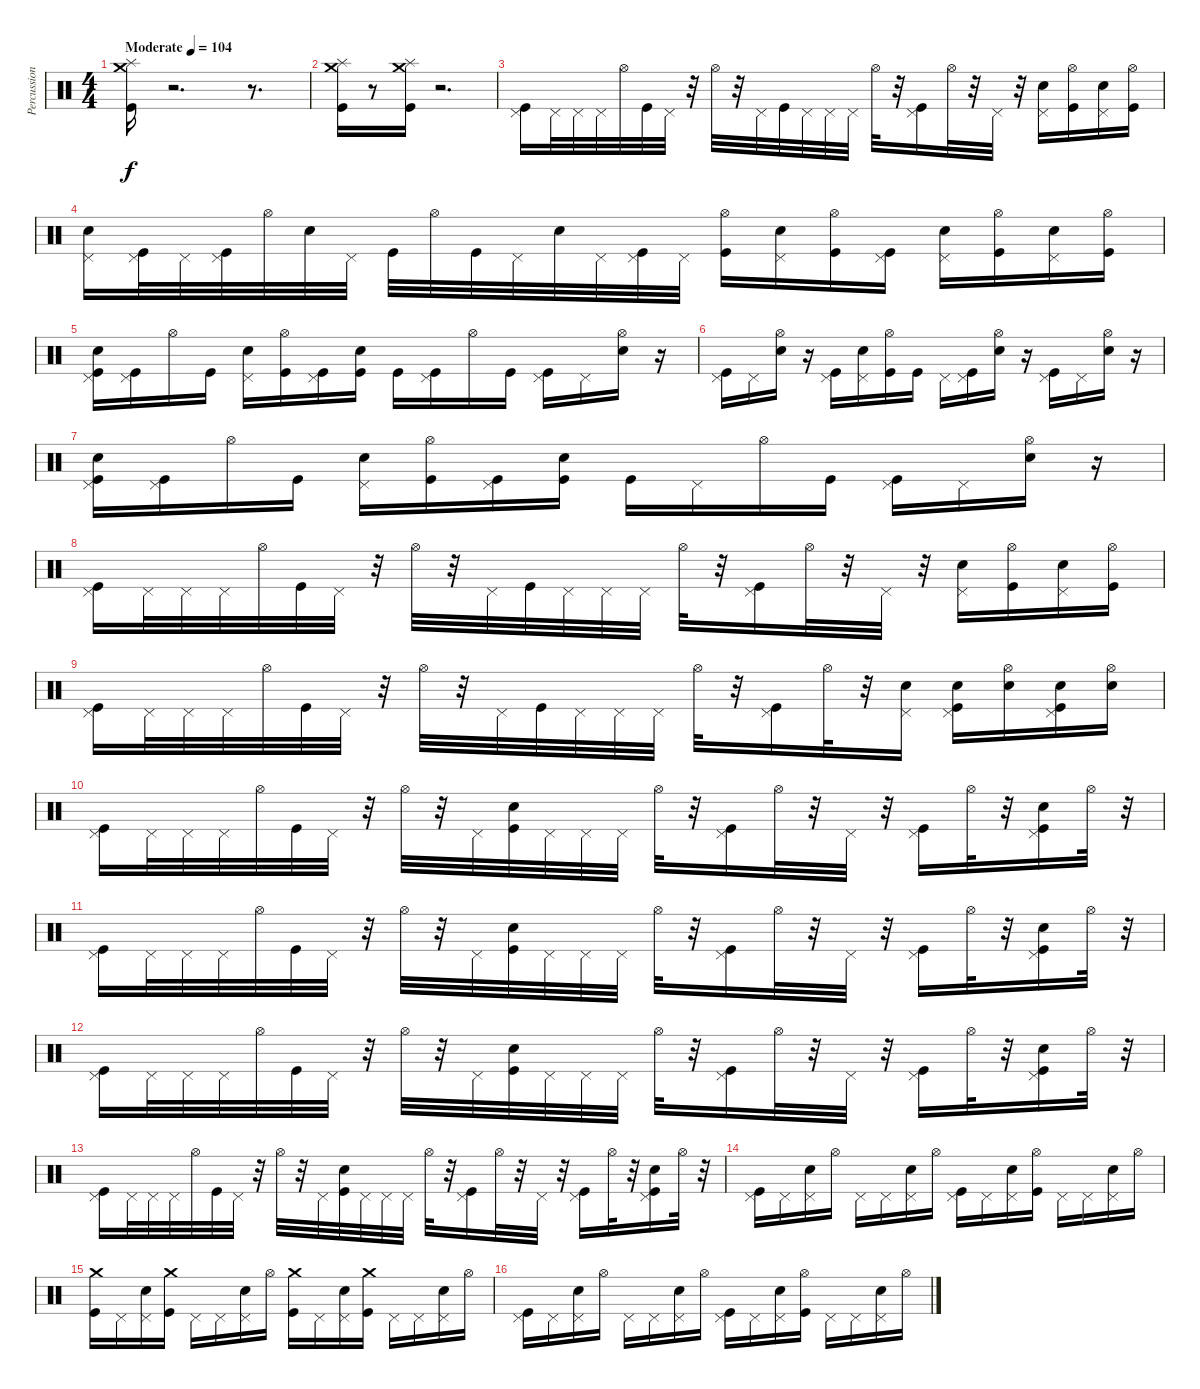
\track ("Percussion" "Percussion") {instrument percussion}
\staff {score}
\articulation defaults
\ts (4 4)
\tempo (104 "Moderate")
\clef neutral
\ks c
("Kick (hit)" "Splash (hit)" "Crash medium (hit)").16{dy f} r.2{d} r.8{d} |
("Crash medium (hit)" "Kick (hit)" "Splash (hit)").16 r.8 ("Kick (hit)" "Splash (hit)" "Crash medium (hit)").16 r.2{d} |
("Kick (hit)" "Pedal Hi-Hat (hit)").16 "Pedal Hi-Hat (hit)".32 "Pedal Hi-Hat (hit)".32 "Pedal Hi-Hat (hit)".32 "Hi-Hat (open)".32 "Kick (hit)".32 "Pedal Hi-Hat (hit)".32 r.32 "Hi-Hat (open)".32 r.32 "Pedal Hi-Hat (hit)".32 "Kick (hit)".32 "Pedal Hi-Hat (hit)".32 "Pedal Hi-Hat (hit)".32 "Pedal Hi-Hat (hit)".32 "Hi-Hat (open)".32 r.32 ("Pedal Hi-Hat (hit)" "Kick (hit)").16 "Hi-Hat (open)".32 r.32 "Pedal Hi-Hat (hit)".32 r.32 ("Pedal Hi-Hat (hit)" "Electric Snare (hit)").16 ("Hi-Hat (open)" "Kick (hit)").16 ("Pedal Hi-Hat (hit)" "Electric Snare (hit)").16 ("Hi-Hat (open)" "Kick (hit)").16 |
("Electric Snare (hit)" "Pedal Hi-Hat (hit)").16 ("Kick (hit)" "Pedal Hi-Hat (hit)").32 "Pedal Hi-Hat (hit)".32 ("Kick (hit)" "Pedal Hi-Hat (hit)").32 "Hi-Hat (open)".32 "Electric Snare (hit)".32 "Pedal Hi-Hat (hit)".32 "Kick (hit)".32 "Hi-Hat (open)".32 "Kick (hit)".32 "Pedal Hi-Hat (hit)".32 "Electric Snare (hit)".32 "Pedal Hi-Hat (hit)".32 ("Kick (hit)" "Pedal Hi-Hat (hit)").32 "Pedal Hi-Hat (hit)".32 ("Kick (hit)" "Hi-Hat (open)").16 ("Pedal Hi-Hat (hit)" "Electric Snare (hit)").16 ("Kick (hit)" "Hi-Hat (open)").16 ("Kick (hit)" "Pedal Hi-Hat (hit)").16 ("Pedal Hi-Hat (hit)" "Electric Snare (hit)").16 ("Hi-Hat (open)" "Kick (hit)").16 ("Pedal Hi-Hat (hit)" "Electric Snare (hit)").16 ("Hi-Hat (open)" "Kick (hit)").16 |
("Electric Snare (hit)" "Kick (hit)" "Pedal Hi-Hat (hit)").16 ("Kick (hit)" "Pedal Hi-Hat (hit)").16 "Hi-Hat (open)".16 "Kick (hit)".16 ("Electric Snare (hit)" "Pedal Hi-Hat (hit)").16 ("Kick (hit)" "Hi-Hat (open)").16 ("Kick (hit)" "Pedal Hi-Hat (hit)").16 ("Kick (hit)" "Electric Snare (hit)").16 "Kick (hit)".16 ("Kick (hit)" "Pedal Hi-Hat (hit)").16 "Hi-Hat (open)".16 "Kick (hit)".16 ("Kick (hit)" "Pedal Hi-Hat (hit)").16 "Pedal Hi-Hat (hit)".16 ("Electric Snare (hit)" "Hi-Hat (open)").16 r.16 |
("Pedal Hi-Hat (hit)" "Kick (hit)").16 "Pedal Hi-Hat (hit)".16 ("Hi-Hat (open)" "Electric Snare (hit)").16 r.16 ("Pedal Hi-Hat (hit)" "Kick (hit)").16 ("Pedal Hi-Hat (hit)" "Electric Snare (hit)").16 ("Hi-Hat (open)" "Kick (hit)").16 "Kick (hit)".16 "Pedal Hi-Hat (hit)".16 ("Pedal Hi-Hat (hit)" "Kick (hit)").16 ("Hi-Hat (open)" "Electric Snare (hit)").16 r.16 ("Pedal Hi-Hat (hit)" "Kick (hit)").16 "Pedal Hi-Hat (hit)".16 ("Hi-Hat (open)" "Electric Snare (hit)").16 r.16 |
("Electric Snare (hit)" "Kick (hit)" "Pedal Hi-Hat (hit)").16 ("Kick (hit)" "Pedal Hi-Hat (hit)").16 "Hi-Hat (open)".16 "Kick (hit)".16 ("Electric Snare (hit)" "Pedal Hi-Hat (hit)").16 ("Kick (hit)" "Hi-Hat (open)").16 ("Kick (hit)" "Pedal Hi-Hat (hit)").16 ("Kick (hit)" "Electric Snare (hit)").16 "Kick (hit)".16 "Pedal Hi-Hat (hit)".16 "Hi-Hat (open)".16 "Kick (hit)".16 ("Kick (hit)" "Pedal Hi-Hat (hit)").16 "Pedal Hi-Hat (hit)".16 ("Electric Snare (hit)" "Hi-Hat (open)").16 r.16 |
("Kick (hit)" "Pedal Hi-Hat (hit)").16 "Pedal Hi-Hat (hit)".32 "Pedal Hi-Hat (hit)".32 "Pedal Hi-Hat (hit)".32 "Hi-Hat (open)".32 "Kick (hit)".32 "Pedal Hi-Hat (hit)".32 r.32 "Hi-Hat (open)".32 r.32 "Pedal Hi-Hat (hit)".32 "Kick (hit)".32 "Pedal Hi-Hat (hit)".32 "Pedal Hi-Hat (hit)".32 "Pedal Hi-Hat (hit)".32 "Hi-Hat (open)".32 r.32 ("Pedal Hi-Hat (hit)" "Kick (hit)").16 "Hi-Hat (open)".32 r.32 "Pedal Hi-Hat (hit)".32 r.32 ("Pedal Hi-Hat (hit)" "Electric Snare (hit)").16 ("Hi-Hat (open)" "Kick (hit)").16 ("Pedal Hi-Hat (hit)" "Electric Snare (hit)").16 ("Hi-Hat (open)" "Kick (hit)").16 |
("Kick (hit)" "Pedal Hi-Hat (hit)").16 "Pedal Hi-Hat (hit)".32 "Pedal Hi-Hat (hit)".32 "Pedal Hi-Hat (hit)".32 "Hi-Hat (open)".32 "Kick (hit)".32 "Pedal Hi-Hat (hit)".32 r.32 "Hi-Hat (open)".32 r.32 "Pedal Hi-Hat (hit)".32 "Kick (hit)".32 "Pedal Hi-Hat (hit)".32 "Pedal Hi-Hat (hit)".32 "Pedal Hi-Hat (hit)".32 "Hi-Hat (open)".32 r.32 ("Pedal Hi-Hat (hit)" "Kick (hit)").16 "Hi-Hat (open)".32 r.32 ("Electric Snare (hit)" "Pedal Hi-Hat (hit)").16 ("Kick (hit)" "Electric Snare (hit)" "Pedal Hi-Hat (hit)").16 ("Electric Snare (hit)" "Hi-Hat (open)").16 ("Kick (hit)" "Pedal Hi-Hat (hit)" "Electric Snare (hit)").16 ("Electric Snare (hit)" "Hi-Hat (open)").16 |
("Kick (hit)" "Pedal Hi-Hat (hit)").16{volume 9 balance 16} "Pedal Hi-Hat (hit)".32 "Pedal Hi-Hat (hit)".32 "Pedal Hi-Hat (hit)".32 "Hi-Hat (open)".32 "Kick (hit)".32 "Pedal Hi-Hat (hit)".32 r.32 "Hi-Hat (open)".32 r.32 "Pedal Hi-Hat (hit)".32 ("Electric Snare (hit)" "Kick (hit)").32 "Pedal Hi-Hat (hit)".32 "Pedal Hi-Hat (hit)".32 "Pedal Hi-Hat (hit)".32 "Hi-Hat (open)".32 r.32 ("Pedal Hi-Hat (hit)" "Kick (hit)").16 "Hi-Hat (open)".32 r.32 "Pedal Hi-Hat (hit)".32 r.32 ("Kick (hit)" "Pedal Hi-Hat (hit)").16 "Hi-Hat (open)".32 r.32 ("Kick (hit)" "Electric Snare (hit)" "Pedal Hi-Hat (hit)").16 "Hi-Hat (open)".32 r.32 |
("Kick (hit)" "Pedal Hi-Hat (hit)").16 "Pedal Hi-Hat (hit)".32 "Pedal Hi-Hat (hit)".32 "Pedal Hi-Hat (hit)".32 "Hi-Hat (open)".32 "Kick (hit)".32 "Pedal Hi-Hat (hit)".32 r.32 "Hi-Hat (open)".32 r.32 "Pedal Hi-Hat (hit)".32 ("Electric Snare (hit)" "Kick (hit)").32 "Pedal Hi-Hat (hit)".32 "Pedal Hi-Hat (hit)".32 "Pedal Hi-Hat (hit)".32 "Hi-Hat (open)".32 r.32 ("Pedal Hi-Hat (hit)" "Kick (hit)").16 "Hi-Hat (open)".32 r.32 "Pedal Hi-Hat (hit)".32 r.32 ("Kick (hit)" "Pedal Hi-Hat (hit)").16 "Hi-Hat (open)".32 r.32 ("Kick (hit)" "Electric Snare (hit)" "Pedal Hi-Hat (hit)").16 "Hi-Hat (open)".32 r.32 |
("Kick (hit)" "Pedal Hi-Hat (hit)").16 "Pedal Hi-Hat (hit)".32 "Pedal Hi-Hat (hit)".32 "Pedal Hi-Hat (hit)".32 "Hi-Hat (open)".32 "Kick (hit)".32 "Pedal Hi-Hat (hit)".32 r.32 "Hi-Hat (open)".32 r.32 "Pedal Hi-Hat (hit)".32 ("Electric Snare (hit)" "Kick (hit)").32 "Pedal Hi-Hat (hit)".32 "Pedal Hi-Hat (hit)".32 "Pedal Hi-Hat (hit)".32 "Hi-Hat (open)".32 r.32 ("Pedal Hi-Hat (hit)" "Kick (hit)").16 "Hi-Hat (open)".32 r.32 "Pedal Hi-Hat (hit)".32 r.32 ("Kick (hit)" "Pedal Hi-Hat (hit)").16 "Hi-Hat (open)".32 r.32 ("Kick (hit)" "Electric Snare (hit)" "Pedal Hi-Hat (hit)").16 "Hi-Hat (open)".32 r.32 |
("Kick (hit)" "Pedal Hi-Hat (hit)").16 "Pedal Hi-Hat (hit)".32 "Pedal Hi-Hat (hit)".32 "Pedal Hi-Hat (hit)".32 "Hi-Hat (open)".32 "Kick (hit)".32 "Pedal Hi-Hat (hit)".32 r.32 "Hi-Hat (open)".32 r.32 "Pedal Hi-Hat (hit)".32 ("Electric Snare (hit)" "Kick (hit)").32 "Pedal Hi-Hat (hit)".32 "Pedal Hi-Hat (hit)".32 "Pedal Hi-Hat (hit)".32 "Hi-Hat (open)".32 r.32 ("Pedal Hi-Hat (hit)" "Kick (hit)").16 "Hi-Hat (open)".32 r.32 "Pedal Hi-Hat (hit)".32 r.32 ("Kick (hit)" "Pedal Hi-Hat (hit)").16 "Hi-Hat (open)".32 r.32 ("Kick (hit)" "Electric Snare (hit)" "Pedal Hi-Hat (hit)").16 "Hi-Hat (open)".32 r.32 |
("Kick (hit)" "Pedal Hi-Hat (hit)").16 "Pedal Hi-Hat (hit)".16 ("Electric Snare (hit)" "Pedal Hi-Hat (hit)").16 "Hi-Hat (open)".16 "Pedal Hi-Hat (hit)".16 "Pedal Hi-Hat (hit)".16 ("Electric Snare (hit)" "Pedal Hi-Hat (hit)").16 "Hi-Hat (open)".16 ("Kick (hit)" "Pedal Hi-Hat (hit)").16 "Pedal Hi-Hat (hit)".16 ("Electric Snare (hit)" "Pedal Hi-Hat (hit)").16 ("Kick (hit)" "Hi-Hat (open)").16 "Pedal Hi-Hat (hit)".16 "Pedal Hi-Hat (hit)".16 ("Electric Snare (hit)" "Pedal Hi-Hat (hit)").16 "Hi-Hat (open)".16 |
("Kick (hit)" "Crash medium (hit)").16 "Pedal Hi-Hat (hit)".16 ("Pedal Hi-Hat (hit)" "Electric Snare (hit)").16 ("Kick (hit)" "Crash medium (hit)").16 "Pedal Hi-Hat (hit)".16 "Pedal Hi-Hat (hit)".16 ("Pedal Hi-Hat (hit)" "Electric Snare (hit)").16 "Hi-Hat (open)".16 ("Kick (hit)" "Crash medium (hit)").16 "Pedal Hi-Hat (hit)".16 ("Pedal Hi-Hat (hit)" "Electric Snare (hit)").16 ("Kick (hit)" "Crash medium (hit)").16 "Pedal Hi-Hat (hit)".16 "Pedal Hi-Hat (hit)".16 ("Pedal Hi-Hat (hit)" "Electric Snare (hit)").16 "Hi-Hat (open)".16 |
("Kick (hit)" "Pedal Hi-Hat (hit)").16 "Pedal Hi-Hat (hit)".16 ("Electric Snare (hit)" "Pedal Hi-Hat (hit)").16 "Hi-Hat (open)".16 "Pedal Hi-Hat (hit)".16 "Pedal Hi-Hat (hit)".16 ("Electric Snare (hit)" "Pedal Hi-Hat (hit)").16 "Hi-Hat (open)".16 ("Kick (hit)" "Pedal Hi-Hat (hit)").16 "Pedal Hi-Hat (hit)".16 ("Electric Snare (hit)" "Pedal Hi-Hat (hit)").16 ("Kick (hit)" "Hi-Hat (open)").16 "Pedal Hi-Hat (hit)".16 "Pedal Hi-Hat (hit)".16 ("Electric Snare (hit)" "Pedal Hi-Hat (hit)").16 "Hi-Hat (open)".16
